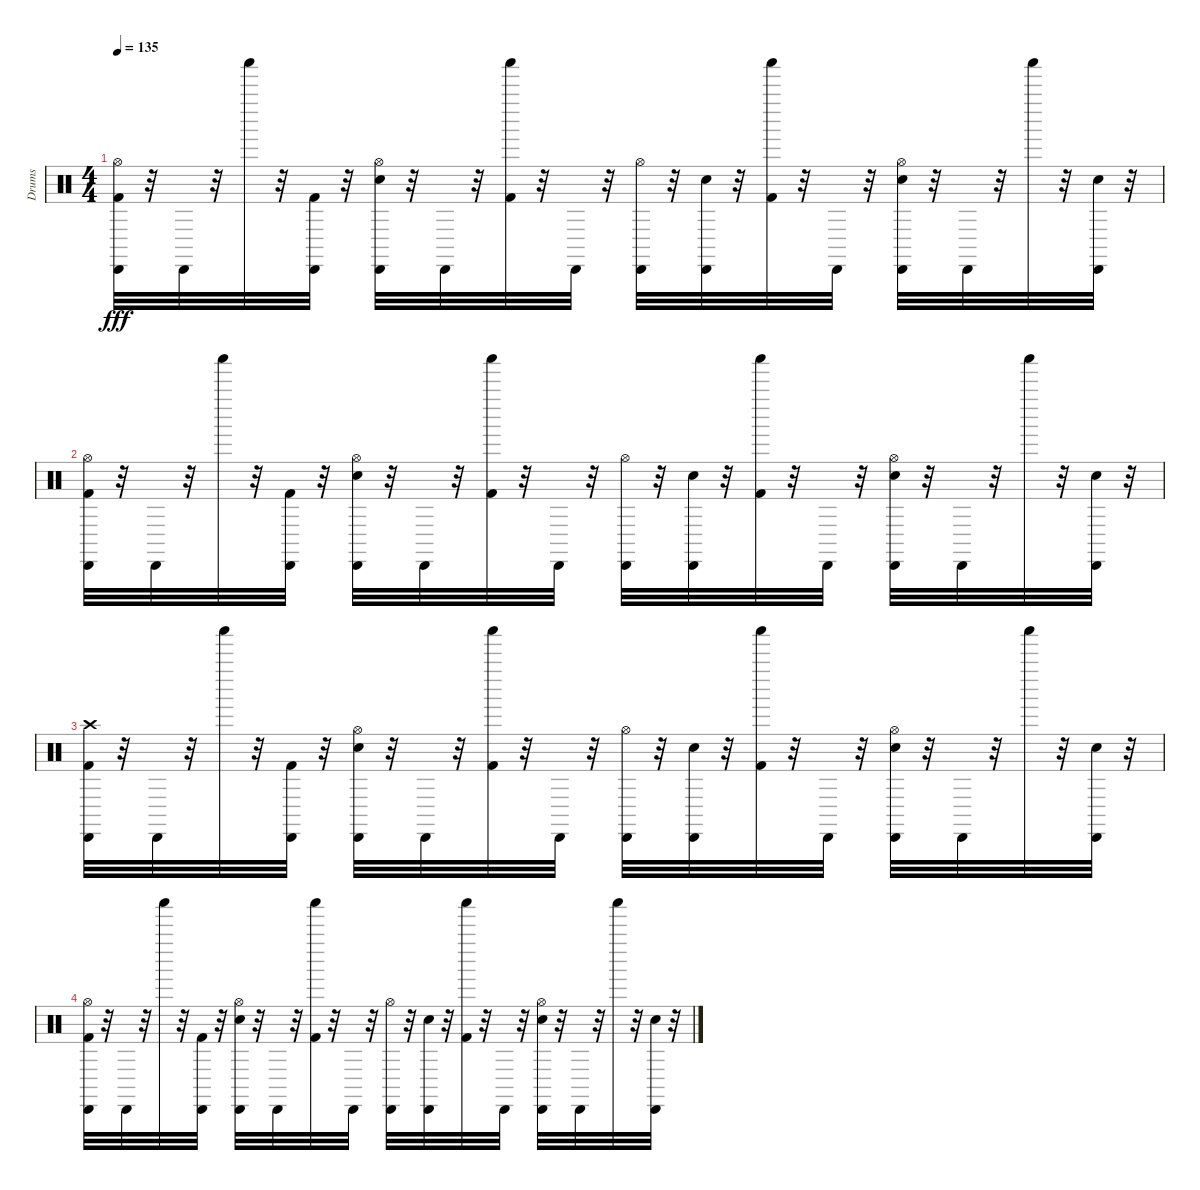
\track ("Drums" "Drums") {instrument percussion}
\staff {score}
\articulation defaults
\ts (4 4)
\tempo 135
\clef neutral
\ks c
("Hi-Hat (open)" "Kick (hit) 2" "Cabasa (hit)").32{dy fff} r.32 "Cabasa (hit)".32 r.32 "Shaker (hit)".32 r.32 ("Kick (hit) 2" "Cabasa (hit)").32 r.32 ("Snare (hit) 2" "Hi-Hat (open)" "Cabasa (hit)").32 r.32 "Cabasa (hit)".32 r.32 ("Kick (hit) 2" "Shaker (hit)").32 r.32 "Cabasa (hit)".32 r.32 ("Hi-Hat (open)" "Cabasa (hit)").32 r.32 ("Snare (hit) 2" "Cabasa (hit)").32 r.32 ("Kick (hit) 2" "Shaker (hit)").32 r.32 "Cabasa (hit)".32 r.32 ("Snare (hit) 2" "Hi-Hat (open)" "Cabasa (hit)").32 r.32 "Cabasa (hit)".32 r.32 "Shaker (hit)".32 r.32 ("Snare (hit) 2" "Cabasa (hit)").32 r.32 |
("Hi-Hat (open)" "Kick (hit) 2" "Cabasa (hit)").32 r.32 "Cabasa (hit)".32 r.32 "Shaker (hit)".32 r.32 ("Kick (hit) 2" "Cabasa (hit)").32 r.32 ("Snare (hit) 2" "Hi-Hat (open)" "Cabasa (hit)").32 r.32 "Cabasa (hit)".32 r.32 ("Kick (hit) 2" "Shaker (hit)").32 r.32 "Cabasa (hit)".32 r.32 ("Hi-Hat (open)" "Cabasa (hit)").32 r.32 ("Snare (hit) 2" "Cabasa (hit)").32 r.32 ("Kick (hit) 2" "Shaker (hit)").32 r.32 "Cabasa (hit)".32 r.32 ("Snare (hit) 2" "Hi-Hat (open)" "Cabasa (hit)").32 r.32 "Cabasa (hit)".32 r.32 "Shaker (hit)".32 r.32 ("Snare (hit) 2" "Cabasa (hit)").32 r.32 |
("Crash high (hit)" "Kick (hit) 2" "Cabasa (hit)").32 r.32 "Cabasa (hit)".32 r.32 "Shaker (hit)".32 r.32 ("Kick (hit) 2" "Cabasa (hit)").32 r.32 ("Snare (hit) 2" "Hi-Hat (open)" "Cabasa (hit)").32 r.32 "Cabasa (hit)".32 r.32 ("Kick (hit) 2" "Shaker (hit)").32 r.32 "Cabasa (hit)".32 r.32 ("Hi-Hat (open)" "Cabasa (hit)").32 r.32 ("Snare (hit) 2" "Cabasa (hit)").32 r.32 ("Kick (hit) 2" "Shaker (hit)").32 r.32 "Cabasa (hit)".32 r.32 ("Snare (hit) 2" "Hi-Hat (open)" "Cabasa (hit)").32 r.32 "Cabasa (hit)".32 r.32 "Shaker (hit)".32 r.32 ("Snare (hit) 2" "Cabasa (hit)").32 r.32 |
("Hi-Hat (open)" "Kick (hit) 2" "Cabasa (hit)").32 r.32 "Cabasa (hit)".32 r.32 "Shaker (hit)".32 r.32 ("Kick (hit) 2" "Cabasa (hit)").32 r.32 ("Snare (hit) 2" "Hi-Hat (open)" "Cabasa (hit)").32 r.32 "Cabasa (hit)".32 r.32 ("Kick (hit) 2" "Shaker (hit)").32 r.32 "Cabasa (hit)".32 r.32 ("Hi-Hat (open)" "Cabasa (hit)").32 r.32 ("Snare (hit) 2" "Cabasa (hit)").32 r.32 ("Kick (hit) 2" "Shaker (hit)").32 r.32 "Cabasa (hit)".32 r.32 ("Snare (hit) 2" "Hi-Hat (open)" "Cabasa (hit)").32 r.32 "Cabasa (hit)".32 r.32 "Shaker (hit)".32 r.32 ("Snare (hit) 2" "Cabasa (hit)").32 r.32
